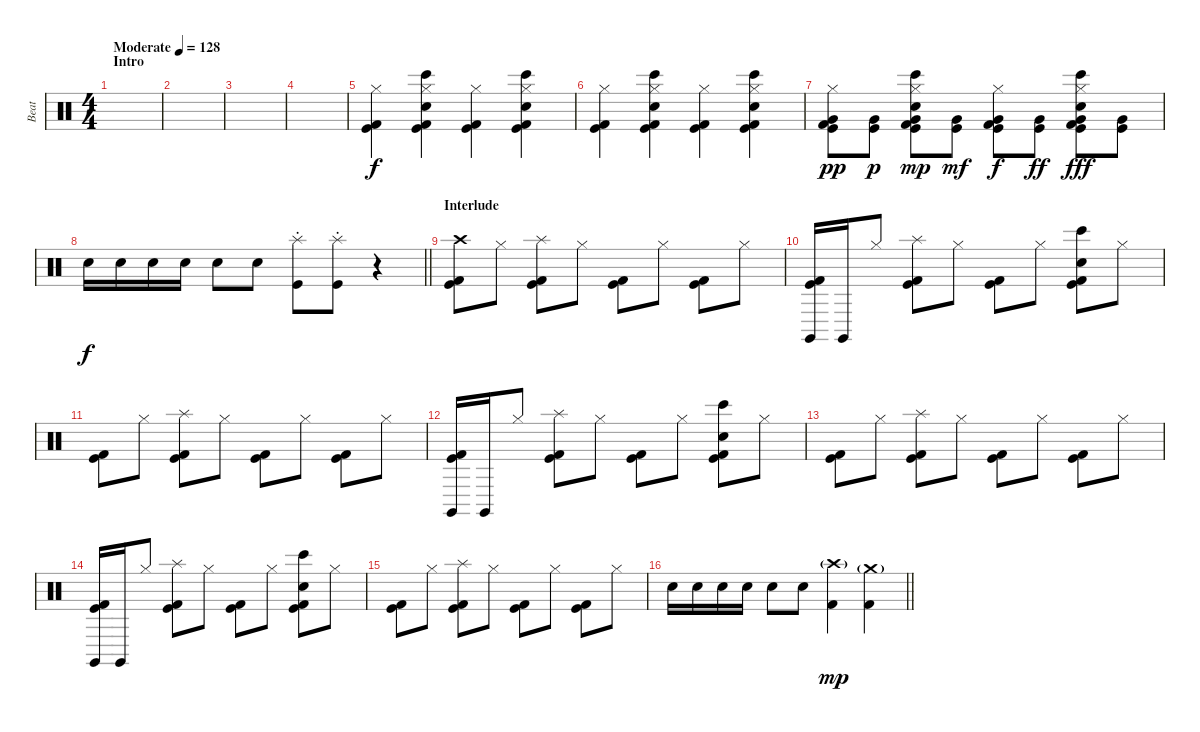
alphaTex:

\track ("Beat" "Beat") {instrument percussion}
\staff {score}
\articulation defaults
\ts (4 4)
\section ("" "Intro")
\tempo (128 "Moderate")
\clef neutral
\ks c
|
|
|
|
("Hi-Hat (closed)" "Kick (hit) 2" "Kick (hit)").4 ("Hi-Hat (closed)" "Bongo High (hit)" "Snare (hit) 2" "Kick (hit) 2" "Kick (hit)").4 ("Hi-Hat (closed)" "Kick (hit) 2" "Kick (hit)").4 ("Hi-Hat (closed)" "Bongo High (hit)" "Snare (hit) 2" "Kick (hit) 2" "Kick (hit)").4 |
("Hi-Hat (closed)" "Kick (hit) 2" "Kick (hit)").4 ("Hi-Hat (closed)" "Bongo High (hit)" "Snare (hit) 2" "Kick (hit) 2" "Kick (hit)").4 ("Hi-Hat (closed)" "Kick (hit) 2" "Kick (hit)").4 ("Hi-Hat (closed)" "Bongo High (hit)" "Snare (hit) 2" "Kick (hit) 2" "Kick (hit)").4 |
("Very Low Tom (hit)" "Hi-Hat (closed)" "Kick (hit) 2" "Kick (hit)").8{dy pp} ("Very Low Tom (hit)" "Kick (hit)").8{dy p} ("Very Low Tom (hit)" "Hi-Hat (closed)" "Bongo High (hit)" "Snare (hit) 2" "Kick (hit) 2" "Kick (hit)").8{dy mp} ("Very Low Tom (hit)" "Kick (hit)").8{dy mf} ("Very Low Tom (hit)" "Hi-Hat (closed)" "Kick (hit) 2" "Kick (hit)").8{dy f} ("Very Low Tom (hit)" "Kick (hit)").8{dy ff} ("Very Low Tom (hit)" "Hi-Hat (closed)" "Bongo High (hit)" "Snare (hit) 2" "Kick (hit) 2" "Kick (hit)").8{dy fff} ("Very Low Tom (hit)" "Kick (hit)").8 |
\barLineRight lightlight "Electric Snare (hit)".16{dy f} "Electric Snare (hit)".16 "Electric Snare (hit)".16 "Electric Snare (hit)".16 "Electric Snare (hit)".8 "Electric Snare (hit)".8
("Splash (hit)"{st} "Kick (hit)"{st}).8 ("Splash (hit)"{st} "Kick (hit)"{st}).8 r.4 |
\section ("" "Interlude")
("Crash high (hit)" "Kick (hit) 2" "Kick (hit)").8 "Hi-Hat (closed)".8 ("Splash (hit)" "Kick (hit) 2" "Kick (hit)").8 "Hi-Hat (closed)".8 ("Kick (hit) 2" "Kick (hit)").8 "Hi-Hat (closed)".8 ("Kick (hit) 2" "Kick (hit)").8 "Hi-Hat (closed)".8 |
("Claves (hit)" "Kick (hit) 2" "Kick (hit)").16 "Claves (hit)".16 "Hi-Hat (closed)".8 ("Splash (hit)" "Kick (hit) 2" "Kick (hit)").8 "Hi-Hat (closed)".8 ("Kick (hit) 2" "Kick (hit)").8 "Hi-Hat (closed)".8 ("Bongo High (hit)" "Snare (hit) 2" "Kick (hit) 2" "Kick (hit)").8 "Hi-Hat (closed)".8 |
("Kick (hit) 2" "Kick (hit)").8 "Hi-Hat (closed)".8 ("Splash (hit)" "Kick (hit) 2" "Kick (hit)").8 "Hi-Hat (closed)".8 ("Kick (hit) 2" "Kick (hit)").8 "Hi-Hat (closed)".8 ("Kick (hit) 2" "Kick (hit)").8 "Hi-Hat (closed)".8 |
("Claves (hit)" "Kick (hit) 2" "Kick (hit)").16 "Claves (hit)".16 "Hi-Hat (closed)".8 ("Splash (hit)" "Kick (hit) 2" "Kick (hit)").8 "Hi-Hat (closed)".8 ("Kick (hit) 2" "Kick (hit)").8 "Hi-Hat (closed)".8 ("Bongo High (hit)" "Snare (hit) 2" "Kick (hit) 2" "Kick (hit)").8 "Hi-Hat (closed)".8 |
("Kick (hit) 2" "Kick (hit)").8 "Hi-Hat (closed)".8 ("Splash (hit)" "Kick (hit) 2" "Kick (hit)").8 "Hi-Hat (closed)".8 ("Kick (hit) 2" "Kick (hit)").8 "Hi-Hat (closed)".8 ("Kick (hit) 2" "Kick (hit)").8 "Hi-Hat (closed)".8 |
("Claves (hit)" "Kick (hit) 2" "Kick (hit)").16 "Claves (hit)".16 "Hi-Hat (closed)".8 ("Splash (hit)" "Kick (hit) 2" "Kick (hit)").8 "Hi-Hat (closed)".8 ("Kick (hit) 2" "Kick (hit)").8 "Hi-Hat (closed)".8 ("Bongo High (hit)" "Snare (hit) 2" "Kick (hit) 2" "Kick (hit)").8 "Hi-Hat (closed)".8 |
("Kick (hit) 2" "Kick (hit)").8 "Hi-Hat (closed)".8 ("Splash (hit)" "Kick (hit) 2" "Kick (hit)").8 "Hi-Hat (closed)".8 ("Kick (hit) 2" "Kick (hit)").8 "Hi-Hat (closed)".8 ("Kick (hit) 2" "Kick (hit)").8 "Hi-Hat (closed)".8 |
\barLineRight lightlight "Electric Snare (hit)".16 "Electric Snare (hit)".16 "Electric Snare (hit)".16 "Electric Snare (hit)".16 "Electric Snare (hit)".8 "Electric Snare (hit)".8
("Crash high (hit)"{g} "Kick (hit) 2").4{dy mp} ("Crash medium (hit)"{g} "Kick (hit) 2").4
